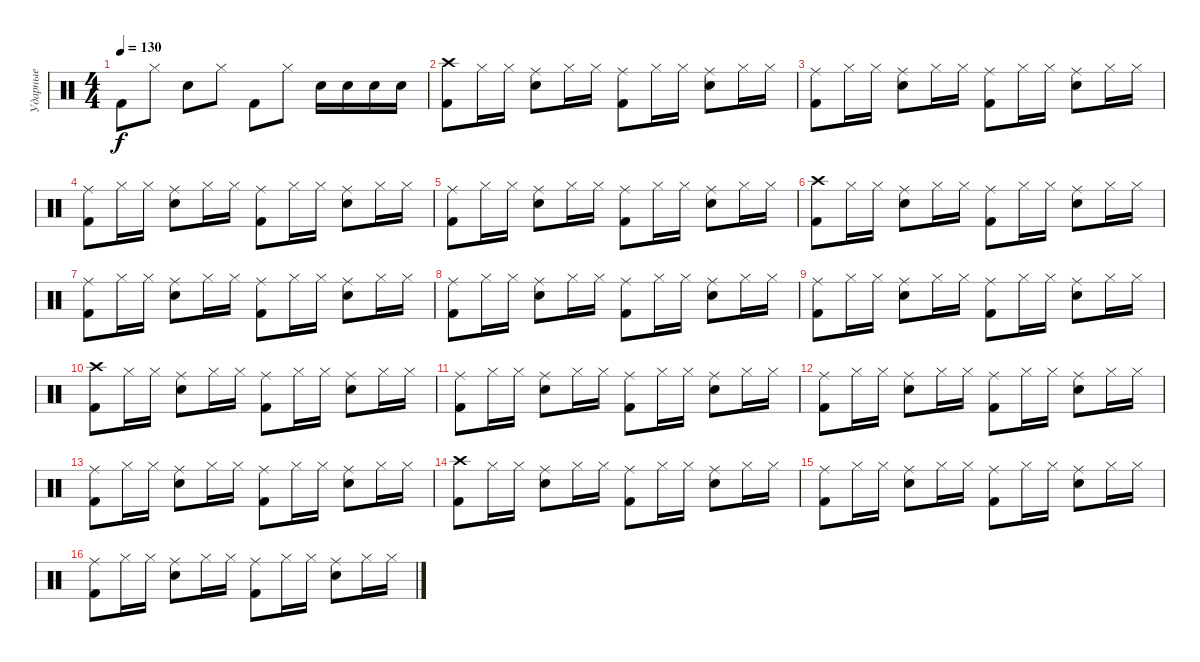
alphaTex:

\track ("Ударные" "Ударные") {instrument percussion}
\staff {score}
\articulation defaults
\ts (4 4)
\tempo 130
\clef neutral
\ks c "Kick (hit) 2".8{dy f} "Hi-Hat (closed)".8 "Electric Snare (hit)".8 "Hi-Hat (closed)".8 "Kick (hit) 2".8 "Hi-Hat (closed)".8 "Electric Snare (hit)".16 "Electric Snare (hit)".16 "Electric Snare (hit)".16 "Electric Snare (hit)".16
|
("Crash high (hit)" "Kick (hit) 2").8 "Hi-Hat (closed)".16 "Hi-Hat (closed)".16 ("Ride (middle)" "Electric Snare (hit)").8 "Hi-Hat (closed)".16 "Hi-Hat (closed)".16 ("Ride (middle)" "Kick (hit) 2").8 "Hi-Hat (closed)".16 "Hi-Hat (closed)".16 ("Ride (middle)" "Electric Snare (hit)").8 "Hi-Hat (closed)".16 "Hi-Hat (closed)".16 |
("Ride (middle)" "Kick (hit) 2").8 "Hi-Hat (closed)".16 "Hi-Hat (closed)".16 ("Ride (middle)" "Electric Snare (hit)").8 "Hi-Hat (closed)".16 "Hi-Hat (closed)".16 ("Ride (middle)" "Kick (hit) 2").8 "Hi-Hat (closed)".16 "Hi-Hat (closed)".16 ("Ride (middle)" "Electric Snare (hit)").8 "Hi-Hat (closed)".16 "Hi-Hat (closed)".16 |
("Ride (middle)" "Kick (hit) 2").8 "Hi-Hat (closed)".16 "Hi-Hat (closed)".16 ("Ride (middle)" "Electric Snare (hit)").8 "Hi-Hat (closed)".16 "Hi-Hat (closed)".16 ("Ride (middle)" "Kick (hit) 2").8 "Hi-Hat (closed)".16 "Hi-Hat (closed)".16 ("Ride (middle)" "Electric Snare (hit)").8 "Hi-Hat (closed)".16 "Hi-Hat (closed)".16 |
("Ride (middle)" "Kick (hit) 2").8 "Hi-Hat (closed)".16 "Hi-Hat (closed)".16 ("Ride (middle)" "Electric Snare (hit)").8 "Hi-Hat (closed)".16 "Hi-Hat (closed)".16 ("Ride (middle)" "Kick (hit) 2").8 "Hi-Hat (closed)".16 "Hi-Hat (closed)".16 ("Ride (middle)" "Electric Snare (hit)").8 "Hi-Hat (closed)".16 "Hi-Hat (closed)".16 |
("Crash high (hit)" "Kick (hit) 2").8 "Hi-Hat (closed)".16 "Hi-Hat (closed)".16 ("Ride (middle)" "Electric Snare (hit)").8 "Hi-Hat (closed)".16 "Hi-Hat (closed)".16 ("Ride (middle)" "Kick (hit) 2").8 "Hi-Hat (closed)".16 "Hi-Hat (closed)".16 ("Ride (middle)" "Electric Snare (hit)").8 "Hi-Hat (closed)".16 "Hi-Hat (closed)".16 |
("Ride (middle)" "Kick (hit) 2").8 "Hi-Hat (closed)".16 "Hi-Hat (closed)".16 ("Ride (middle)" "Electric Snare (hit)").8 "Hi-Hat (closed)".16 "Hi-Hat (closed)".16 ("Ride (middle)" "Kick (hit) 2").8 "Hi-Hat (closed)".16 "Hi-Hat (closed)".16 ("Ride (middle)" "Electric Snare (hit)").8 "Hi-Hat (closed)".16 "Hi-Hat (closed)".16 |
("Ride (middle)" "Kick (hit) 2").8 "Hi-Hat (closed)".16 "Hi-Hat (closed)".16 ("Ride (middle)" "Electric Snare (hit)").8 "Hi-Hat (closed)".16 "Hi-Hat (closed)".16 ("Ride (middle)" "Kick (hit) 2").8 "Hi-Hat (closed)".16 "Hi-Hat (closed)".16 ("Ride (middle)" "Electric Snare (hit)").8 "Hi-Hat (closed)".16 "Hi-Hat (closed)".16 |
("Ride (middle)" "Kick (hit) 2").8 "Hi-Hat (closed)".16 "Hi-Hat (closed)".16 ("Ride (middle)" "Electric Snare (hit)").8 "Hi-Hat (closed)".16 "Hi-Hat (closed)".16 ("Ride (middle)" "Kick (hit) 2").8 "Hi-Hat (closed)".16 "Hi-Hat (closed)".16 ("Ride (middle)" "Electric Snare (hit)").8 "Hi-Hat (closed)".16 "Hi-Hat (closed)".16 |
("Crash high (hit)" "Kick (hit) 2").8 "Hi-Hat (closed)".16 "Hi-Hat (closed)".16 ("Ride (middle)" "Electric Snare (hit)").8 "Hi-Hat (closed)".16 "Hi-Hat (closed)".16 ("Ride (middle)" "Kick (hit) 2").8 "Hi-Hat (closed)".16 "Hi-Hat (closed)".16 ("Ride (middle)" "Electric Snare (hit)").8 "Hi-Hat (closed)".16 "Hi-Hat (closed)".16 |
("Ride (middle)" "Kick (hit) 2").8 "Hi-Hat (closed)".16 "Hi-Hat (closed)".16 ("Ride (middle)" "Electric Snare (hit)").8 "Hi-Hat (closed)".16 "Hi-Hat (closed)".16 ("Ride (middle)" "Kick (hit) 2").8 "Hi-Hat (closed)".16 "Hi-Hat (closed)".16 ("Ride (middle)" "Electric Snare (hit)").8 "Hi-Hat (closed)".16 "Hi-Hat (closed)".16 |
("Ride (middle)" "Kick (hit) 2").8 "Hi-Hat (closed)".16 "Hi-Hat (closed)".16 ("Ride (middle)" "Electric Snare (hit)").8 "Hi-Hat (closed)".16 "Hi-Hat (closed)".16 ("Ride (middle)" "Kick (hit) 2").8 "Hi-Hat (closed)".16 "Hi-Hat (closed)".16 ("Ride (middle)" "Electric Snare (hit)").8 "Hi-Hat (closed)".16 "Hi-Hat (closed)".16 |
("Ride (middle)" "Kick (hit) 2").8 "Hi-Hat (closed)".16 "Hi-Hat (closed)".16 ("Ride (middle)" "Electric Snare (hit)").8 "Hi-Hat (closed)".16 "Hi-Hat (closed)".16 ("Ride (middle)" "Kick (hit) 2").8 "Hi-Hat (closed)".16 "Hi-Hat (closed)".16 ("Ride (middle)" "Electric Snare (hit)").8 "Hi-Hat (closed)".16 "Hi-Hat (closed)".16 |
("Crash high (hit)" "Kick (hit) 2").8 "Hi-Hat (closed)".16 "Hi-Hat (closed)".16 ("Ride (middle)" "Electric Snare (hit)").8 "Hi-Hat (closed)".16 "Hi-Hat (closed)".16 ("Ride (middle)" "Kick (hit) 2").8 "Hi-Hat (closed)".16 "Hi-Hat (closed)".16 ("Ride (middle)" "Electric Snare (hit)").8 "Hi-Hat (closed)".16 "Hi-Hat (closed)".16 |
("Ride (middle)" "Kick (hit) 2").8 "Hi-Hat (closed)".16 "Hi-Hat (closed)".16 ("Ride (middle)" "Electric Snare (hit)").8 "Hi-Hat (closed)".16 "Hi-Hat (closed)".16 ("Ride (middle)" "Kick (hit) 2").8 "Hi-Hat (closed)".16 "Hi-Hat (closed)".16 ("Ride (middle)" "Electric Snare (hit)").8 "Hi-Hat (closed)".16 "Hi-Hat (closed)".16 |
("Ride (middle)" "Kick (hit) 2").8 "Hi-Hat (closed)".16 "Hi-Hat (closed)".16 ("Ride (middle)" "Electric Snare (hit)").8 "Hi-Hat (closed)".16 "Hi-Hat (closed)".16 ("Ride (middle)" "Kick (hit) 2").8 "Hi-Hat (closed)".16 "Hi-Hat (closed)".16 ("Ride (middle)" "Electric Snare (hit)").8 "Hi-Hat (closed)".16 "Hi-Hat (closed)".16
